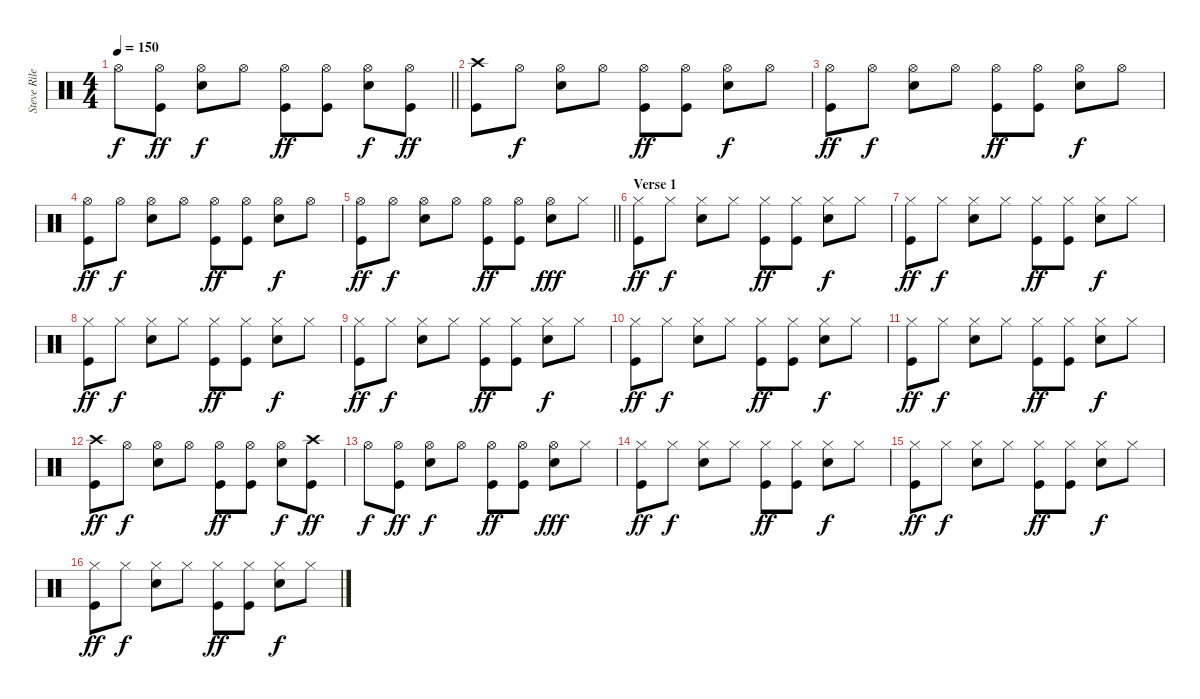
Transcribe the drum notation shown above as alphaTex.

\track ("Steve Riley" "Steve Rile") {instrument percussion}
\staff {score}
\articulation defaults
\ts (4 4)
\tempo 150
\clef neutral
\barLineRight lightlight
\ks c "Hi-Hat (open)".8{dy f}
("Hi-Hat (open)" "Kick (hit)").8{dy ff} ("Hi-Hat (open)" "Snare (hit) 2").8{dy f} "Hi-Hat (open)".8 ("Hi-Hat (open)" "Kick (hit)").8{dy ff} ("Hi-Hat (open)" "Kick (hit)").8 ("Hi-Hat (open)" "Snare (hit) 2").8{dy f} ("Hi-Hat (open)" "Kick (hit)").8{dy ff} |
("Crash high (hit)" "Kick (hit)").8 "Hi-Hat (open)".8{dy f} ("Hi-Hat (open)" "Snare (hit) 2").8 "Hi-Hat (open)".8 ("Hi-Hat (open)" "Kick (hit)").8{dy ff} ("Hi-Hat (open)" "Kick (hit)").8 ("Hi-Hat (open)" "Snare (hit) 2").8{dy f} "Hi-Hat (open)".8 |
("Hi-Hat (open)" "Kick (hit)").8{dy ff} "Hi-Hat (open)".8{dy f} ("Hi-Hat (open)" "Snare (hit) 2").8 "Hi-Hat (open)".8 ("Hi-Hat (open)" "Kick (hit)").8{dy ff} ("Hi-Hat (open)" "Kick (hit)").8 ("Hi-Hat (open)" "Snare (hit) 2").8{dy f} "Hi-Hat (open)".8 |
("Hi-Hat (open)" "Kick (hit)").8{dy ff} "Hi-Hat (open)".8{dy f} ("Hi-Hat (open)" "Snare (hit) 2").8 "Hi-Hat (open)".8 ("Hi-Hat (open)" "Kick (hit)").8{dy ff} ("Hi-Hat (open)" "Kick (hit)").8 ("Hi-Hat (open)" "Snare (hit) 2").8{dy f} "Hi-Hat (open)".8 |
\barLineRight lightlight
("Hi-Hat (open)" "Kick (hit)").8{dy ff} "Hi-Hat (open)".8{dy f} ("Hi-Hat (open)" "Snare (hit) 2").8 "Hi-Hat (open)".8 ("Hi-Hat (open)" "Kick (hit)").8{dy ff} ("Hi-Hat (open)" "Kick (hit)").8 ("Hi-Hat (open)" "Snare (hit) 2").8{dy fff} "Hi-Hat (closed)".8 |
\section ("" "Verse 1")
("Hi-Hat (closed)" "Kick (hit)").8{dy ff} "Hi-Hat (closed)".8{dy f} ("Hi-Hat (closed)" "Snare (hit) 2").8 "Hi-Hat (closed)".8 ("Hi-Hat (closed)" "Kick (hit)").8{dy ff} ("Hi-Hat (closed)" "Kick (hit)").8 ("Hi-Hat (closed)" "Snare (hit) 2").8{dy f} "Hi-Hat (closed)".8 |
("Hi-Hat (closed)" "Kick (hit)").8{dy ff} "Hi-Hat (closed)".8{dy f} ("Hi-Hat (closed)" "Snare (hit) 2").8 "Hi-Hat (closed)".8 ("Hi-Hat (closed)" "Kick (hit)").8{dy ff} ("Hi-Hat (closed)" "Kick (hit)").8 ("Hi-Hat (closed)" "Snare (hit) 2").8{dy f} "Hi-Hat (closed)".8 |
("Hi-Hat (closed)" "Kick (hit)").8{dy ff} "Hi-Hat (closed)".8{dy f} ("Hi-Hat (closed)" "Snare (hit) 2").8 "Hi-Hat (closed)".8 ("Hi-Hat (closed)" "Kick (hit)").8{dy ff} ("Hi-Hat (closed)" "Kick (hit)").8 ("Hi-Hat (closed)" "Snare (hit) 2").8{dy f} "Hi-Hat (closed)".8 |
("Hi-Hat (closed)" "Kick (hit)").8{dy ff} "Hi-Hat (closed)".8{dy f} ("Hi-Hat (closed)" "Snare (hit) 2").8 "Hi-Hat (closed)".8 ("Hi-Hat (closed)" "Kick (hit)").8{dy ff} ("Hi-Hat (closed)" "Kick (hit)").8 ("Hi-Hat (closed)" "Snare (hit) 2").8{dy f} "Hi-Hat (closed)".8 |
("Hi-Hat (closed)" "Kick (hit)").8{dy ff} "Hi-Hat (closed)".8{dy f} ("Hi-Hat (closed)" "Snare (hit) 2").8 "Hi-Hat (closed)".8 ("Hi-Hat (closed)" "Kick (hit)").8{dy ff} ("Hi-Hat (closed)" "Kick (hit)").8 ("Hi-Hat (closed)" "Snare (hit) 2").8{dy f} "Hi-Hat (closed)".8 |
("Hi-Hat (closed)" "Kick (hit)").8{dy ff} "Hi-Hat (closed)".8{dy f} ("Hi-Hat (closed)" "Snare (hit) 2").8 "Hi-Hat (closed)".8 ("Hi-Hat (closed)" "Kick (hit)").8{dy ff} ("Hi-Hat (closed)" "Kick (hit)").8 ("Hi-Hat (closed)" "Snare (hit) 2").8{dy f} "Hi-Hat (closed)".8 |
("Crash high (hit)" "Kick (hit)").8{dy ff} "Hi-Hat (open)".8{dy f} ("Hi-Hat (open)" "Snare (hit) 2").8 "Hi-Hat (open)".8 ("Hi-Hat (open)" "Kick (hit)").8{dy ff} ("Hi-Hat (open)" "Kick (hit)").8 ("Hi-Hat (open)" "Snare (hit) 2").8{dy f} ("Crash high (hit)" "Kick (hit)").8{dy ff} |
"Hi-Hat (open)".8{dy f} ("Hi-Hat (open)" "Kick (hit)").8{dy ff} ("Hi-Hat (open)" "Snare (hit) 2").8{dy f} "Hi-Hat (open)".8 ("Hi-Hat (open)" "Kick (hit)").8{dy ff} ("Hi-Hat (open)" "Kick (hit)").8 ("Hi-Hat (open)" "Snare (hit) 2").8{dy fff} "Hi-Hat (closed)".8 |
("Hi-Hat (closed)" "Kick (hit)").8{dy ff} "Hi-Hat (closed)".8{dy f} ("Hi-Hat (closed)" "Snare (hit) 2").8 "Hi-Hat (closed)".8 ("Hi-Hat (closed)" "Kick (hit)").8{dy ff} ("Hi-Hat (closed)" "Kick (hit)").8 ("Hi-Hat (closed)" "Snare (hit) 2").8{dy f} "Hi-Hat (closed)".8 |
("Hi-Hat (closed)" "Kick (hit)").8{dy ff} "Hi-Hat (closed)".8{dy f} ("Hi-Hat (closed)" "Snare (hit) 2").8 "Hi-Hat (closed)".8 ("Hi-Hat (closed)" "Kick (hit)").8{dy ff} ("Hi-Hat (closed)" "Kick (hit)").8 ("Hi-Hat (closed)" "Snare (hit) 2").8{dy f} "Hi-Hat (closed)".8 |
("Hi-Hat (closed)" "Kick (hit)").8{dy ff} "Hi-Hat (closed)".8{dy f} ("Hi-Hat (closed)" "Snare (hit) 2").8 "Hi-Hat (closed)".8 ("Hi-Hat (closed)" "Kick (hit)").8{dy ff} ("Hi-Hat (closed)" "Kick (hit)").8 ("Hi-Hat (closed)" "Snare (hit) 2").8{dy f} "Hi-Hat (closed)".8
